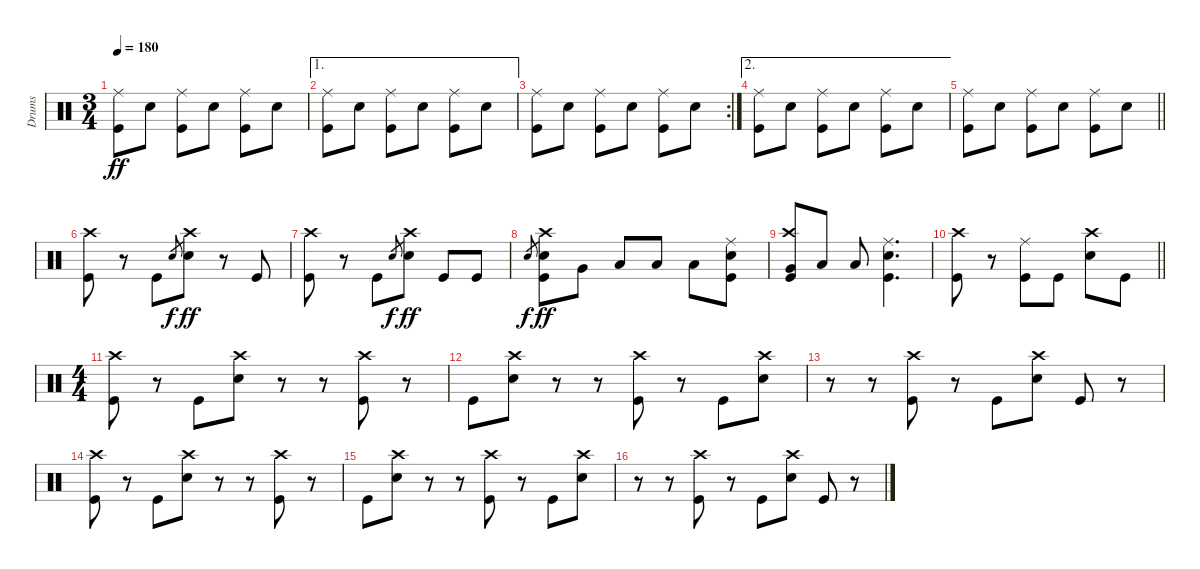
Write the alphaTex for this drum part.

\track ("Drums" "Drums") {instrument percussion}
\staff {score}
\articulation defaults
\ts (3 4)
\tempo 180
\clef neutral
\ks c
("Ride (middle)" "Kick (hit)").8{dy ff} "Snare (hit) 2".8 ("Ride (middle)" "Kick (hit)").8 "Snare (hit) 2".8 ("Ride (middle)" "Kick (hit)").8 "Snare (hit) 2".8 |
\ae 1
("Ride (middle)" "Kick (hit)").8 "Snare (hit) 2".8 ("Ride (middle)" "Kick (hit)").8 "Snare (hit) 2".8 ("Ride (middle)" "Kick (hit)").8 "Snare (hit) 2".8 |
\rc 2
("Ride (middle)" "Kick (hit)").8 "Snare (hit) 2".8 ("Ride (middle)" "Kick (hit)").8 "Snare (hit) 2".8 ("Ride (middle)" "Kick (hit)").8 "Snare (hit) 2".8 |
\ae 2
("Ride (middle)" "Kick (hit)").8 "Snare (hit) 2".8 ("Ride (middle)" "Kick (hit)").8 "Snare (hit) 2".8 ("Ride (middle)" "Kick (hit)").8 "Snare (hit) 2".8 |
\barLineRight lightlight
("Ride (middle)" "Kick (hit)").8 "Snare (hit) 2".8 ("Ride (middle)" "Kick (hit)").8 "Snare (hit) 2".8 ("Ride (middle)" "Kick (hit)").8 "Snare (hit) 2".8 |
("Crash high (hit)" "Kick (hit)").8 r.8 "Kick (hit)".8 "Snare (hit) 2".8{gr dy f} ("Crash high (hit)" "Snare (hit) 2").8{dy ff} r.8 "Kick (hit)".8 |
("Crash high (hit)" "Kick (hit)").8 r.8 "Kick (hit)".8 "Snare (hit) 2".8{gr dy f} ("Crash high (hit)" "Snare (hit) 2").8{dy ff} "Kick (hit)".8 "Kick (hit)".8 |
"Snare (hit) 2".8{gr dy f} ("Crash high (hit)" "Snare (hit) 2" "Kick (hit)").8{dy ff} "Very Low Tom (hit)".8 "Low Floor Tom (hit)".8 "Low Floor Tom (hit)".8 "Low Floor Tom (hit)".8 ("Ride (middle)" "Snare (hit) 2" "Kick (hit)").8 |
("Crash high (hit)" "Very Low Tom (hit)" "Kick (hit)").8 "Low Floor Tom (hit)".8 "Low Floor Tom (hit)".8 ("Ride (middle)" "Snare (hit) 2" "Kick (hit)").4{d} |
\barLineRight lightlight
("Crash high (hit)" "Kick (hit)").8 r.8 ("Ride (middle)" "Kick (hit)").8 "Kick (hit)".8 ("Crash high (hit)" "Snare (hit) 2").8 "Kick (hit)".8 |
\ts (4 4)
("Crash high (hit)" "Kick (hit)").8 r.8 "Kick (hit)".8 ("Crash high (hit)" "Snare (hit) 2").8 r.8 r.8 ("Crash high (hit)" "Kick (hit)").8 r.8 |
"Kick (hit)".8 ("Crash high (hit)" "Snare (hit) 2").8 r.8 r.8 ("Crash high (hit)" "Kick (hit)").8 r.8 "Kick (hit)".8 ("Crash high (hit)" "Snare (hit) 2").8 |
r.8 r.8 ("Crash high (hit)" "Kick (hit)").8 r.8 "Kick (hit)".8 ("Crash high (hit)" "Snare (hit) 2").8 "Kick (hit)".8 r.8 |
("Crash high (hit)" "Kick (hit)").8 r.8 "Kick (hit)".8 ("Crash high (hit)" "Snare (hit) 2").8 r.8 r.8 ("Crash high (hit)" "Kick (hit)").8 r.8 |
"Kick (hit)".8 ("Crash high (hit)" "Snare (hit) 2").8 r.8 r.8 ("Crash high (hit)" "Kick (hit)").8 r.8 "Kick (hit)".8 ("Crash high (hit)" "Snare (hit) 2").8 |
r.8 r.8 ("Crash high (hit)" "Kick (hit)").8 r.8 "Kick (hit)".8 ("Crash high (hit)" "Snare (hit) 2").8 "Kick (hit)".8 r.8
